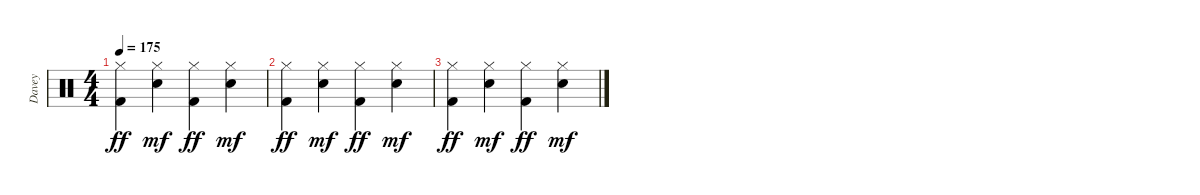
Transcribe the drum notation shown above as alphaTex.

\track ("Davey" "Davey") {instrument percussion}
\staff {score}
\articulation defaults
\ts (4 4)
\tempo 175
\clef neutral
\ks c
("Hi-Hat (closed)" "Kick (hit) 2").4{dy ff} ("Hi-Hat (closed)" "Electric Snare (hit)").4{dy mf} ("Hi-Hat (closed)" "Kick (hit) 2").4{dy ff} ("Hi-Hat (closed)" "Electric Snare (hit)").4{dy mf} |
("Hi-Hat (closed)" "Kick (hit) 2").4{dy ff} ("Hi-Hat (closed)" "Electric Snare (hit)").4{dy mf} ("Hi-Hat (closed)" "Kick (hit) 2").4{dy ff} ("Hi-Hat (closed)" "Electric Snare (hit)").4{dy mf} |
("Hi-Hat (closed)" "Kick (hit) 2").4{dy ff} ("Hi-Hat (closed)" "Electric Snare (hit)").4{dy mf} ("Hi-Hat (closed)" "Kick (hit) 2").4{dy ff} ("Hi-Hat (closed)" "Electric Snare (hit)").4{dy mf}
